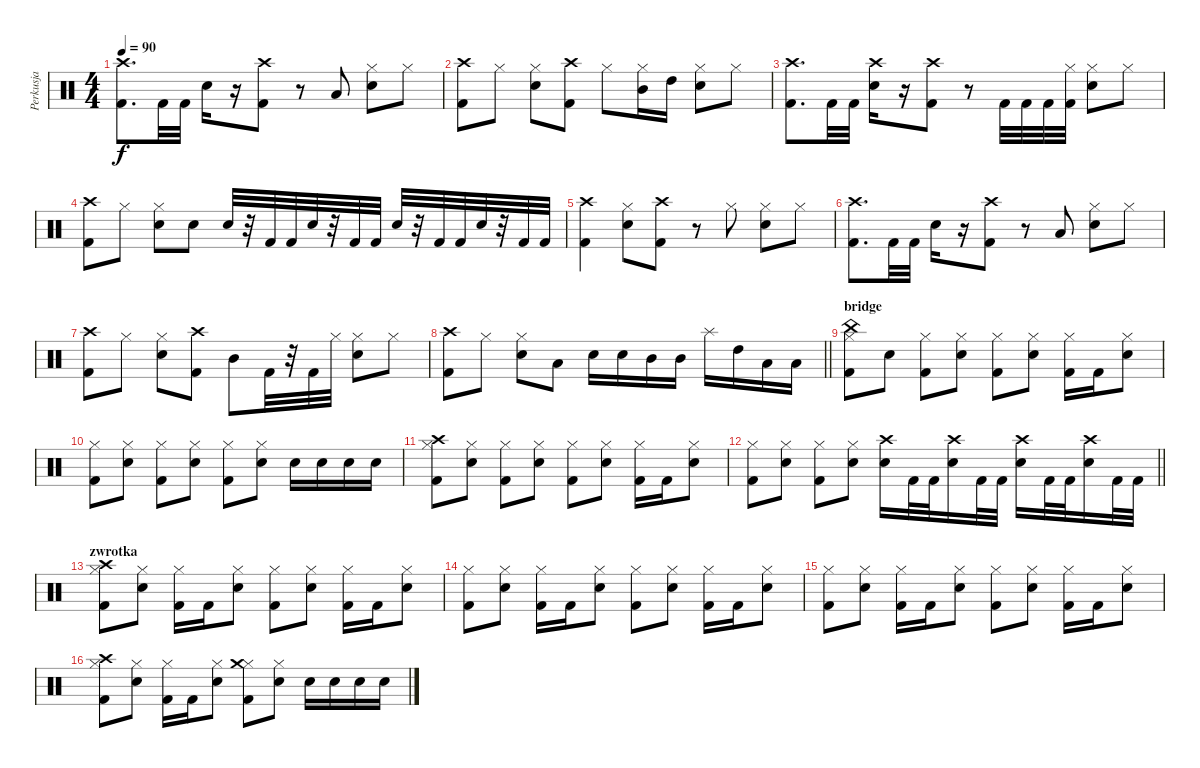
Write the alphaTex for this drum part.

\track ("Perkusja" "Perkusja") {instrument percussion}
\staff {score}
\articulation defaults
\ts (4 4)
\tempo 90
\clef neutral
\ks c
("Crash high (hit)" "Kick (hit) 2").8{d dy f} "Kick (hit) 2".32 "Kick (hit) 2".32 "Snare (hit) 2".16 r.16 ("Kick (hit) 2" "Crash high (hit)").8 r.8 "Low Floor Tom (hit)".8 ("Hi-Hat (closed)" "Snare (hit) 2").8 "Hi-Hat (closed)".8 |
("Crash high (hit)" "Kick (hit) 2").8 "Hi-Hat (closed)".8 ("Hi-Hat (closed)" "Snare (hit) 2").8 ("Kick (hit) 2" "Crash high (hit)").8 "Hi-Hat (closed)".8 ("Hi-Hat (closed)" "Mid Tom (hit)").16 "High Tom (hit)".16 ("Hi-Hat (closed)" "Snare (hit) 2").8 "Hi-Hat (closed)".8 |
("Crash high (hit)" "Kick (hit) 2").8{d} "Kick (hit) 2".32 "Kick (hit) 2".32 ("Snare (hit) 2" "Crash high (hit)").16 r.16 ("Kick (hit) 2" "Crash high (hit)").8 r.8 "Kick (hit) 2".32 "Kick (hit) 2".32 "Kick (hit) 2".32 ("Hi-Hat (closed)" "Kick (hit) 2").32 ("Hi-Hat (closed)" "Snare (hit) 2").8 "Hi-Hat (closed)".8 |
("Crash high (hit)" "Kick (hit) 2").8 "Hi-Hat (closed)".8 ("Hi-Hat (closed)" "Snare (hit) 2").8 "Snare (hit) 2".8 "Snare (hit) 2".32 r.32 "Kick (hit) 2".32 "Kick (hit) 2".32 "Snare (hit) 2".32 r.32 "Kick (hit) 2".32 "Kick (hit) 2".32 "Snare (hit) 2".32 r.32 "Kick (hit) 2".32 "Kick (hit) 2".32 "Snare (hit) 2".32 r.32 "Kick (hit) 2".32 "Kick (hit) 2".32 |
("Crash high (hit)" "Kick (hit) 2").4 ("Hi-Hat (closed)" "Snare (hit) 2").8 ("Kick (hit) 2" "Crash high (hit)").8 r.8 "Hi-Hat (closed)".8 ("Hi-Hat (closed)" "Snare (hit) 2").8 "Hi-Hat (closed)".8 |
("Crash high (hit)" "Kick (hit) 2").8{d} "Kick (hit) 2".32 "Kick (hit) 2".32 "Snare (hit) 2".16 r.16 ("Kick (hit) 2" "Crash high (hit)").8 r.8 "Low Floor Tom (hit)".8 ("Hi-Hat (closed)" "Snare (hit) 2").8 "Hi-Hat (closed)".8 |
("Crash high (hit)" "Kick (hit) 2").8 "Hi-Hat (closed)".8 ("Hi-Hat (closed)" "Snare (hit) 2").8 ("Kick (hit) 2" "Crash high (hit)").8 "Mid Tom (hit)".8 "Kick (hit) 2".32 r.32 "Kick (hit) 2".32 "Hi-Hat (closed)".32 ("Hi-Hat (closed)" "Snare (hit) 2").8 "Hi-Hat (closed)".8 |
\barLineRight lightlight
("Crash high (hit)" "Kick (hit) 2").8 "Hi-Hat (closed)".8 ("Hi-Hat (closed)" "Snare (hit) 2").8 "Low Floor Tom (hit)".8 "Snare (hit) 2".16 "Snare (hit) 2".16 "Mid Tom (hit)".16 "Mid Tom (hit)".16 "Splash (hit)".16 "High Tom (hit)".16 "Low Floor Tom (hit)".16 "Low Floor Tom (hit)".16 |
\section ("" "bridge")
("Kick (hit) 2" "Hi-Hat (closed)" "China (hit)").8 "Snare (hit) 2".8 ("Kick (hit) 2" "Hi-Hat (closed)").8 ("Snare (hit) 2" "Hi-Hat (closed)").8 ("Kick (hit) 2" "Hi-Hat (closed)").8 ("Snare (hit) 2" "Hi-Hat (closed)").8 ("Kick (hit) 2" "Hi-Hat (closed)").16 "Kick (hit) 2".16 ("Snare (hit) 2" "Hi-Hat (closed)").8 |
("Kick (hit) 2" "Hi-Hat (closed)").8 ("Snare (hit) 2" "Hi-Hat (closed)").8 ("Kick (hit) 2" "Hi-Hat (closed)").8 ("Snare (hit) 2" "Hi-Hat (closed)").8 ("Kick (hit) 2" "Hi-Hat (closed)").8 ("Snare (hit) 2" "Hi-Hat (closed)").8 "Snare (hit) 2".16 "Snare (hit) 2".16 "Snare (hit) 2".16 "Snare (hit) 2".16 |
("Kick (hit) 2" "Hi-Hat (closed)" "Crash high (hit)").8 ("Snare (hit) 2" "Hi-Hat (closed)").8 ("Kick (hit) 2" "Hi-Hat (closed)").8 ("Snare (hit) 2" "Hi-Hat (closed)").8 ("Kick (hit) 2" "Hi-Hat (closed)").8 ("Snare (hit) 2" "Hi-Hat (closed)").8 ("Kick (hit) 2" "Hi-Hat (closed)").16 "Kick (hit) 2".16 ("Snare (hit) 2" "Hi-Hat (closed)").8 |
\barLineRight lightlight
("Kick (hit) 2" "Hi-Hat (closed)").8 ("Snare (hit) 2" "Hi-Hat (closed)").8 ("Kick (hit) 2" "Hi-Hat (closed)").8 ("Snare (hit) 2" "Hi-Hat (closed)").8 ("Snare (hit) 2" "Crash high (hit)").16 "Kick (hit) 2".32 "Kick (hit) 2".32 ("Snare (hit) 2" "Crash high (hit)").16 "Kick (hit) 2".32 "Kick (hit) 2".32 ("Snare (hit) 2" "Crash high (hit)").16 "Kick (hit) 2".32 "Kick (hit) 2".32 ("Snare (hit) 2" "Crash high (hit)").16 "Kick (hit) 2".32 "Kick (hit) 2".32 |
\section ("" "zwrotka")
("Kick (hit) 2" "Hi-Hat (closed)" "Crash high (hit)").8 ("Snare (hit) 2" "Hi-Hat (closed)").8 ("Kick (hit) 2" "Hi-Hat (closed)").16 "Kick (hit) 2".16 ("Snare (hit) 2" "Hi-Hat (closed)").8 ("Kick (hit) 2" "Hi-Hat (closed)").8 ("Snare (hit) 2" "Hi-Hat (closed)").8 ("Kick (hit) 2" "Hi-Hat (closed)").16 "Kick (hit) 2".16 ("Snare (hit) 2" "Hi-Hat (closed)").8 |
("Kick (hit) 2" "Hi-Hat (closed)").8 ("Snare (hit) 2" "Hi-Hat (closed)").8 ("Kick (hit) 2" "Hi-Hat (closed)").16 "Kick (hit) 2".16 ("Snare (hit) 2" "Hi-Hat (closed)").8 ("Kick (hit) 2" "Hi-Hat (closed)").8 ("Snare (hit) 2" "Hi-Hat (closed)").8 ("Kick (hit) 2" "Hi-Hat (closed)").16 "Kick (hit) 2".16 ("Snare (hit) 2" "Hi-Hat (closed)").8 |
("Kick (hit) 2" "Hi-Hat (closed)").8 ("Snare (hit) 2" "Hi-Hat (closed)").8 ("Kick (hit) 2" "Hi-Hat (closed)").16 "Kick (hit) 2".16 ("Snare (hit) 2" "Hi-Hat (closed)").8 ("Kick (hit) 2" "Hi-Hat (closed)").8 ("Snare (hit) 2" "Hi-Hat (closed)").8 ("Kick (hit) 2" "Hi-Hat (closed)").16 "Kick (hit) 2".16 ("Snare (hit) 2" "Hi-Hat (closed)").8 |
("Kick (hit) 2" "Hi-Hat (closed)" "Crash high (hit)").8 ("Snare (hit) 2" "Hi-Hat (closed)").8 ("Kick (hit) 2" "Hi-Hat (closed)").16 "Kick (hit) 2".16 ("Snare (hit) 2" "Hi-Hat (closed)").8 ("Kick (hit) 2" "Hi-Hat (closed)" "Crash medium (hit)").8 ("Snare (hit) 2" "Hi-Hat (closed)").8 "Snare (hit) 2".16 "Snare (hit) 2".16 "Snare (hit) 2".16 "Snare (hit) 2".16
